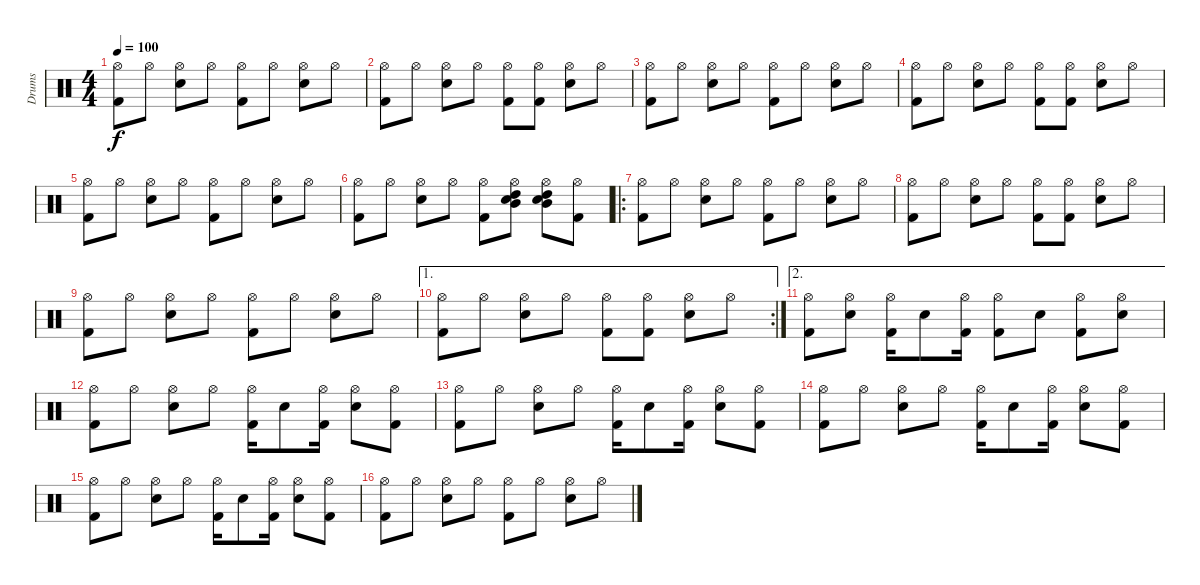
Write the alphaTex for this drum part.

\track ("Drums" "Drums") {instrument percussion}
\staff {score}
\articulation defaults
\ts (4 4)
\tempo 100
\clef neutral
\ks c
("Hi-Hat (open)" "Kick (hit) 2").8{dy f} "Hi-Hat (open)".8 ("Hi-Hat (open)" "Electric Snare (hit)").8 "Hi-Hat (open)".8 ("Hi-Hat (open)" "Kick (hit) 2").8 "Hi-Hat (open)".8 ("Hi-Hat (open)" "Electric Snare (hit)").8 "Hi-Hat (open)".8 |
("Hi-Hat (open)" "Kick (hit) 2").8 "Hi-Hat (open)".8 ("Hi-Hat (open)" "Electric Snare (hit)").8 "Hi-Hat (open)".8 ("Hi-Hat (open)" "Kick (hit) 2").8 ("Hi-Hat (open)" "Kick (hit) 2").8 ("Hi-Hat (open)" "Electric Snare (hit)").8 "Hi-Hat (open)".8 |
("Hi-Hat (open)" "Kick (hit) 2").8 "Hi-Hat (open)".8 ("Hi-Hat (open)" "Electric Snare (hit)").8 "Hi-Hat (open)".8 ("Hi-Hat (open)" "Kick (hit) 2").8 "Hi-Hat (open)".8 ("Hi-Hat (open)" "Electric Snare (hit)").8 "Hi-Hat (open)".8 |
("Hi-Hat (open)" "Kick (hit) 2").8 "Hi-Hat (open)".8 ("Hi-Hat (open)" "Electric Snare (hit)").8 "Hi-Hat (open)".8 ("Hi-Hat (open)" "Kick (hit) 2").8 ("Hi-Hat (open)" "Kick (hit) 2").8 ("Hi-Hat (open)" "Electric Snare (hit)").8 "Hi-Hat (open)".8 |
("Hi-Hat (open)" "Kick (hit) 2").8 "Hi-Hat (open)".8 ("Hi-Hat (open)" "Electric Snare (hit)").8 "Hi-Hat (open)".8 ("Hi-Hat (open)" "Kick (hit) 2").8 "Hi-Hat (open)".8 ("Hi-Hat (open)" "Electric Snare (hit)").8 "Hi-Hat (open)".8 |
("Hi-Hat (open)" "Kick (hit) 2").8 "Hi-Hat (open)".8 ("Hi-Hat (open)" "Electric Snare (hit)").8 "Hi-Hat (open)".8 ("Hi-Hat (open)" "Kick (hit) 2").8 ("Hi-Hat (open)" "Electric Snare (hit)" "High Tom (hit)" "Mid Tom (hit)").8 ("Hi-Hat (open)" "Electric Snare (hit)" "High Tom (hit)" "Mid Tom (hit)").8 ("Hi-Hat (open)" "Kick (hit) 2").8 |
\ro
("Hi-Hat (open)" "Kick (hit) 2").8 "Hi-Hat (open)".8 ("Hi-Hat (open)" "Electric Snare (hit)").8 "Hi-Hat (open)".8 ("Hi-Hat (open)" "Kick (hit) 2").8 "Hi-Hat (open)".8 ("Hi-Hat (open)" "Electric Snare (hit)").8 "Hi-Hat (open)".8 |
("Hi-Hat (open)" "Kick (hit) 2").8 "Hi-Hat (open)".8 ("Hi-Hat (open)" "Electric Snare (hit)").8 "Hi-Hat (open)".8 ("Hi-Hat (open)" "Kick (hit) 2").8 ("Hi-Hat (open)" "Kick (hit) 2").8 ("Hi-Hat (open)" "Electric Snare (hit)").8 "Hi-Hat (open)".8 |
("Hi-Hat (open)" "Kick (hit) 2").8 "Hi-Hat (open)".8 ("Hi-Hat (open)" "Electric Snare (hit)").8 "Hi-Hat (open)".8 ("Hi-Hat (open)" "Kick (hit) 2").8 "Hi-Hat (open)".8 ("Hi-Hat (open)" "Electric Snare (hit)").8 "Hi-Hat (open)".8 |
\ae 1
\rc 2
("Hi-Hat (open)" "Kick (hit) 2").8 "Hi-Hat (open)".8 ("Hi-Hat (open)" "Electric Snare (hit)").8 "Hi-Hat (open)".8 ("Hi-Hat (open)" "Kick (hit) 2").8 ("Hi-Hat (open)" "Kick (hit) 2").8 ("Hi-Hat (open)" "Electric Snare (hit)").8 "Hi-Hat (open)".8 |
\ae 2
("Hi-Hat (open)" "Kick (hit) 2").8 ("Hi-Hat (open)" "Electric Snare (hit)").8 ("Hi-Hat (open)" "Kick (hit) 2").16 "Electric Snare (hit)".8 ("Hi-Hat (open)" "Kick (hit) 2").16 ("Hi-Hat (open)" "Kick (hit) 2").8 "Electric Snare (hit)".8 ("Hi-Hat (open)" "Kick (hit) 2").8 ("Hi-Hat (open)" "Electric Snare (hit)").8 |
("Hi-Hat (open)" "Kick (hit) 2").8 "Hi-Hat (open)".8 ("Hi-Hat (open)" "Electric Snare (hit)").8 "Hi-Hat (open)".8 ("Hi-Hat (open)" "Kick (hit) 2").16 "Electric Snare (hit)".8 ("Hi-Hat (open)" "Kick (hit) 2").16 ("Hi-Hat (open)" "Electric Snare (hit)").8 ("Hi-Hat (open)" "Kick (hit) 2").8 |
("Hi-Hat (open)" "Kick (hit) 2").8 "Hi-Hat (open)".8 ("Hi-Hat (open)" "Electric Snare (hit)").8 "Hi-Hat (open)".8 ("Hi-Hat (open)" "Kick (hit) 2").16 "Electric Snare (hit)".8 ("Hi-Hat (open)" "Kick (hit) 2").16 ("Hi-Hat (open)" "Electric Snare (hit)").8 ("Hi-Hat (open)" "Kick (hit) 2").8 |
("Hi-Hat (open)" "Kick (hit) 2").8 "Hi-Hat (open)".8 ("Hi-Hat (open)" "Electric Snare (hit)").8 "Hi-Hat (open)".8 ("Hi-Hat (open)" "Kick (hit) 2").16 "Electric Snare (hit)".8 ("Hi-Hat (open)" "Kick (hit) 2").16 ("Hi-Hat (open)" "Electric Snare (hit)").8 ("Hi-Hat (open)" "Kick (hit) 2").8 |
("Hi-Hat (open)" "Kick (hit) 2").8 "Hi-Hat (open)".8 ("Hi-Hat (open)" "Electric Snare (hit)").8 "Hi-Hat (open)".8 ("Hi-Hat (open)" "Kick (hit) 2").16 "Electric Snare (hit)".8 ("Hi-Hat (open)" "Kick (hit) 2").16 ("Hi-Hat (open)" "Electric Snare (hit)").8 ("Hi-Hat (open)" "Kick (hit) 2").8 |
("Hi-Hat (open)" "Kick (hit) 2").8 "Hi-Hat (open)".8 ("Hi-Hat (open)" "Electric Snare (hit)").8 "Hi-Hat (open)".8 ("Hi-Hat (open)" "Kick (hit) 2").8 "Hi-Hat (open)".8 ("Hi-Hat (open)" "Electric Snare (hit)").8 "Hi-Hat (open)".8
